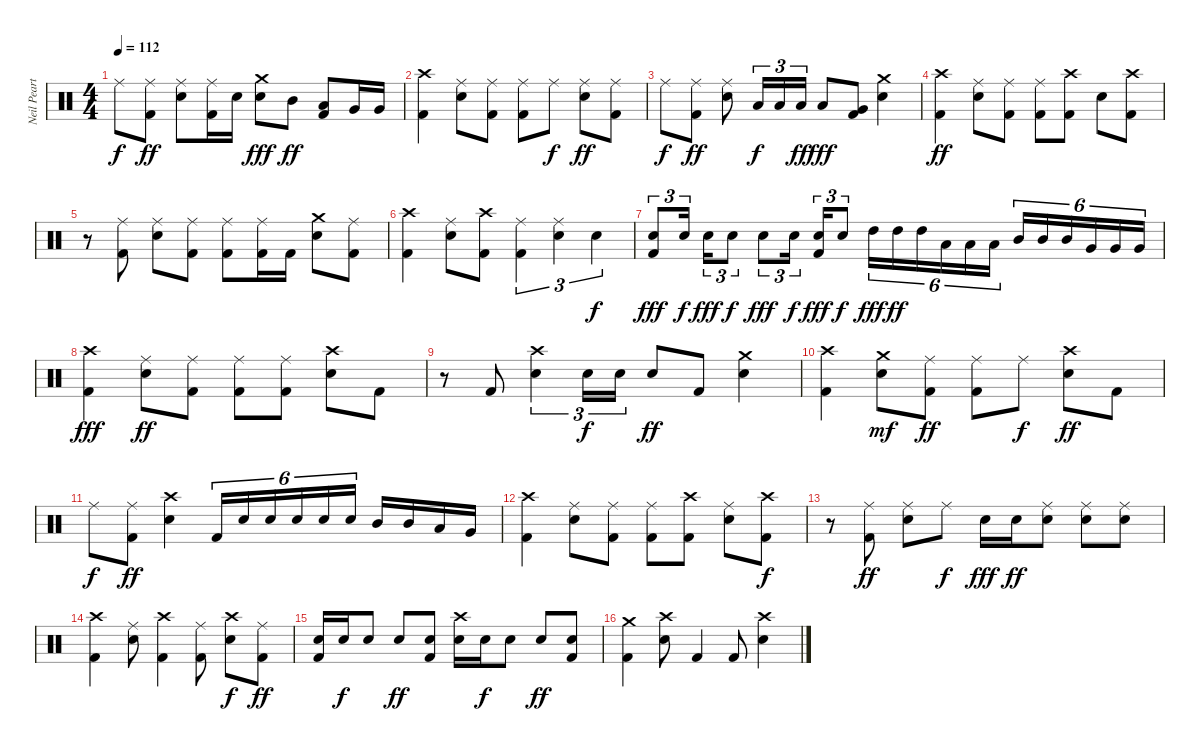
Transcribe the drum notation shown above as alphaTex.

\track ("Neil Peart" "Neil Peart") {instrument percussion}
\staff {score}
\articulation defaults
\ts (4 4)
\tempo 112
\clef neutral
\ks c "Ride (middle)".8{dy f}
("Ride (middle)" "Kick (hit) 2").8{dy ff} ("Ride (middle)" "Snare (hit) 2").8 ("Ride (middle)" "Kick (hit) 2").16 "Snare (hit) 2".16 ("Crash medium (hit)" "Snare (hit) 2").8{dy fff} "Mid Tom (hit)".8{dy ff} ("Kick (hit) 2" "Low Tom (hit)").8 "Very Low Tom (hit)".16 "Very Low Tom (hit)".16 |
("Crash high (hit)" "Kick (hit) 2").4 ("Ride (middle)" "Snare (hit) 2").8 ("Ride (middle)" "Kick (hit) 2").8 ("Ride (middle)" "Kick (hit) 2").8 "Ride (middle)".8{dy f} ("Ride (middle)" "Snare (hit) 2").8{dy ff} ("Ride (middle)" "Kick (hit) 2").8 |
"Ride (middle)".8{dy f} ("Ride (middle)" "Kick (hit) 2").8{dy ff} ("Ride (middle)" "Snare (hit) 2").8 "Low Tom (hit)".16{tu (3 2) dy f} "Low Tom (hit)".16{tu (3 2)} "Low Tom (hit)".16{tu (3 2) dy ff} "Low Tom (hit)".8{dy fff} ("Kick (hit) 2" "Very Low Tom (hit)").8 ("Crash medium (hit)" "Snare (hit) 2").4 |
("Kick (hit) 2" "Crash high (hit)").4{dy ff} ("Ride (middle)" "Snare (hit) 2").8 ("Ride (middle)" "Kick (hit) 2").8 ("Ride (middle)" "Kick (hit) 2").8 ("Crash high (hit)" "Kick (hit) 2").8 "Snare (hit) 2".8 ("Crash high (hit)" "Kick (hit) 2").8 |
r.8 ("Ride (middle)" "Kick (hit) 2").8 ("Ride (middle)" "Snare (hit) 2").8 ("Ride (middle)" "Kick (hit) 2").8 ("Ride (middle)" "Kick (hit) 2").8 ("Ride (middle)" "Kick (hit) 2").16 "Kick (hit) 2".16 ("Crash medium (hit)" "Snare (hit) 2").8 ("Kick (hit) 2" "Ride (middle)").8 |
("Kick (hit) 2" "Crash high (hit)").4 ("Ride (middle)" "Snare (hit) 2").8 ("Crash high (hit)" "Kick (hit) 2").8 ("Ride (middle)" "Kick (hit) 2").4{tu (3 2)} ("Ride (middle)" "Snare (hit) 2").4{tu (3 2)} "Snare (hit) 2".4{tu (3 2) dy f} |
("Kick (hit) 2" "Snare (hit) 2").8{tu (3 2) dy fff} "Snare (hit) 2".16{tu (3 2) dy f} "Snare (hit) 2".16{tu (3 2) dy fff} "Snare (hit) 2".8{tu (3 2) dy f} "Snare (hit) 2".8{tu (3 2) dy fff} "Snare (hit) 2".16{tu (3 2) dy f} ("Kick (hit) 2" "Snare (hit) 2").16{tu (3 2) dy fff} "Snare (hit) 2".8{tu (3 2) dy f} "High Tom (hit)".16{tu (6 4) dy fff} "High Tom (hit)".16{tu (6 4) dy ff} "High Tom (hit)".16{tu (6 4)} "Low Tom (hit)".16{tu (6 4)} "Low Tom (hit)".16{tu (6 4)} "Low Tom (hit)".16{tu (6 4)} "Mid Tom (hit)".16{tu (6 4)} "Mid Tom (hit)".16{tu (6 4)} "Mid Tom (hit)".16{tu (6 4)} "Very Low Tom (hit)".16{tu (6 4)} "Very Low Tom (hit)".16{tu (6 4)} "Very Low Tom (hit)".16{tu (6 4)} |
("Crash high (hit)" "Kick (hit) 2").4{dy fff} ("Ride (middle)" "Snare (hit) 2").8{dy ff} ("Ride (middle)" "Kick (hit) 2").8 ("Ride (middle)" "Kick (hit) 2").8 ("Ride (middle)" "Kick (hit) 2").8 ("Crash high (hit)" "Snare (hit) 2").8 "Kick (hit) 2".8 |
r.8 "Kick (hit) 2".8 ("Crash high (hit)" "Snare (hit) 2").4{tu (3 2)} "Snare (hit) 2".16{tu (3 2) dy f} "Snare (hit) 2".16{tu (3 2)} "Snare (hit) 2".8{dy ff} "Kick (hit) 2".8 ("Crash medium (hit)" "Snare (hit) 2").4 |
("Kick (hit) 2" "Crash high (hit)").4 ("Snare (hit) 2" "Crash medium (hit)").8{dy mf} ("Ride (middle)" "Kick (hit) 2").8{dy ff} ("Ride (middle)" "Kick (hit) 2").8 "Ride (middle)".8{dy f} ("Crash high (hit)" "Snare (hit) 2").8{dy ff} "Kick (hit) 2".8 |
"Ride (middle)".8{dy f} ("Ride (middle)" "Kick (hit) 2").8{dy ff} ("Crash high (hit)" "Snare (hit) 2").4 "Kick (hit) 2".16{tu (6 4)} "Snare (hit) 2".16{tu (6 4)} "Snare (hit) 2".16{tu (6 4)} "Snare (hit) 2".16{tu (6 4)} "Snare (hit) 2".16{tu (6 4)} "Snare (hit) 2".16{tu (6 4)} "Mid Tom (hit)".16 "Mid Tom (hit)".16 "Low Tom (hit)".16 "Very Low Tom (hit)".16 |
("Crash high (hit)" "Kick (hit) 2").4 ("Ride (middle)" "Snare (hit) 2").8 ("Ride (middle)" "Kick (hit) 2").8 ("Ride (middle)" "Kick (hit) 2").8 ("Crash high (hit)" "Kick (hit) 2").8 ("Ride (middle)" "Snare (hit) 2").8 ("Crash high (hit)" "Kick (hit) 2").8{dy f} |
r.8 ("Ride (middle)" "Kick (hit) 2").8{dy ff} ("Ride (middle)" "Snare (hit) 2").8 "Ride (middle)".8{dy f} "Snare (hit) 2".16{dy fff} "Snare (hit) 2".16{dy ff} ("Ride (middle)" "Snare (hit) 2").8 ("Ride (middle)" "Snare (hit) 2").8 ("Ride (middle)" "Snare (hit) 2").8 |
("Crash high (hit)" "Kick (hit) 2").4 ("Ride (middle)" "Snare (hit) 2").8 ("Crash high (hit)" "Kick (hit) 2").4 ("Ride (middle)" "Kick (hit) 2").8 ("Crash high (hit)" "Snare (hit) 2").8{dy f} ("Ride (middle)" "Kick (hit) 2").8{dy ff} |
("Kick (hit) 2" "Snare (hit) 2").16 "Snare (hit) 2".16{dy f} "Snare (hit) 2".8 "Snare (hit) 2".8{dy ff} ("Kick (hit) 2" "Snare (hit) 2").8 ("Crash high (hit)" "Snare (hit) 2").16 "Snare (hit) 2".16{dy f} "Snare (hit) 2".8 "Snare (hit) 2".8{dy ff} ("Kick (hit) 2" "Snare (hit) 2").8 |
("Crash medium (hit)" "Kick (hit) 2").4 ("Crash high (hit)" "Snare (hit) 2").8 "Kick (hit) 2".4 "Kick (hit) 2".8 ("Crash high (hit)" "Snare (hit) 2").4
